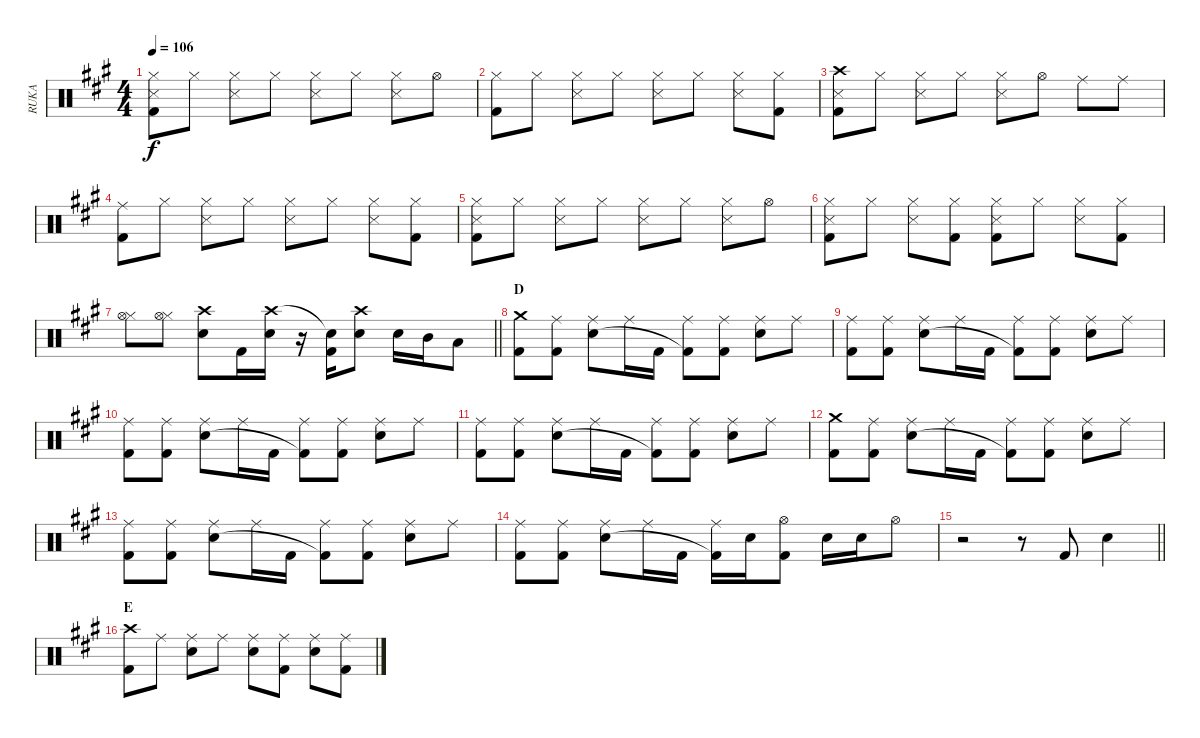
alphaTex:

\track ("RUKA" "RUKA") {instrument percussion}
\staff {score}
\articulation defaults
\ts (4 4)
\tempo 106
\clef neutral
\ks a
("Hi-Hat (closed)" "Snare (side stick) 3" "Kick (hit) 2").8{dy f} "Hi-Hat (closed)".8 ("Hi-Hat (closed)" "Snare (side stick) 3").8 "Hi-Hat (closed)".8 ("Hi-Hat (closed)" "Snare (side stick) 3").8 "Hi-Hat (closed)".8 ("Hi-Hat (closed)" "Snare (side stick) 3").8 "Hi-Hat (open)".8 |
("Hi-Hat (closed)" "Kick (hit) 2").8 "Hi-Hat (closed)".8 ("Hi-Hat (closed)" "Snare (side stick) 3").8 "Hi-Hat (closed)".8 ("Hi-Hat (closed)" "Snare (side stick) 3").8 "Hi-Hat (closed)".8 ("Hi-Hat (closed)" "Snare (side stick) 3").8 ("Hi-Hat (closed)" "Kick (hit) 2").8 |
("Crash high (hit)" "Snare (side stick) 3" "Kick (hit) 2").8 "Hi-Hat (closed)".8 ("Hi-Hat (closed)" "Snare (side stick) 3").8 "Hi-Hat (closed)".8 ("Hi-Hat (closed)" "Snare (side stick) 3").8 "Hi-Hat (open)".8 "Ride (middle)".8 "Ride (middle)".8 |
("Ride (middle)" "Kick (hit) 2").8 "Hi-Hat (closed)".8 ("Hi-Hat (closed)" "Snare (side stick) 3").8 "Hi-Hat (closed)".8 ("Hi-Hat (closed)" "Snare (side stick) 3").8 "Hi-Hat (closed)".8 ("Hi-Hat (closed)" "Snare (side stick) 3").8 ("Hi-Hat (closed)" "Kick (hit) 2").8 |
("Hi-Hat (closed)" "Snare (side stick) 3" "Kick (hit) 2").8 "Hi-Hat (closed)".8 ("Hi-Hat (closed)" "Snare (side stick) 3").8 "Hi-Hat (closed)".8 ("Hi-Hat (closed)" "Snare (side stick) 3").8 "Hi-Hat (closed)".8 ("Hi-Hat (closed)" "Snare (side stick) 3").8 "Hi-Hat (open)".8 |
("Hi-Hat (closed)" "Snare (side stick) 3" "Kick (hit) 2").8 "Hi-Hat (closed)".8 ("Hi-Hat (closed)" "Snare (side stick) 3").8 ("Hi-Hat (closed)" "Kick (hit) 2").8 ("Hi-Hat (closed)" "Snare (side stick) 3" "Kick (hit) 2").8 "Hi-Hat (closed)".8 ("Hi-Hat (closed)" "Snare (side stick) 3").8 ("Hi-Hat (closed)" "Kick (hit) 2").8 |
\barLineRight lightlight
("Hi-Hat (closed)" "Hi-Hat (open)").8 ("Hi-Hat (closed)" "Hi-Hat (open)").8 ("Crash high (hit)" "Snare (hit) 2").8 "Kick (hit) 2".16 ("Crash high (hit)" "Snare (hit) 2").16 r.16 ("Snare (hit)"{t} "Kick (hit) 2").16 ("Crash high (hit)" "Snare (hit) 2").8 "Snare (hit) 2".16 "Mid Tom (hit)".16 "Low Tom (hit)".8 |
\section ("" "D")
("Crash medium (hit)" "Kick (hit) 2").8 ("Ride (middle)" "Kick (hit) 2").8 ("Ride (middle)" "Snare (hit) 2").8 "Ride (middle)".16 "Kick (hit) 2".16 ("Ride (middle)" "Kick (hit) 2"{t}).8 ("Ride (middle)" "Kick (hit) 2").8 ("Ride (middle)" "Snare (hit) 2").8 "Ride (middle)".8 |
("Ride (middle)" "Kick (hit) 2").8 ("Ride (middle)" "Kick (hit) 2").8 ("Ride (middle)" "Snare (hit) 2").8 "Ride (middle)".16 "Kick (hit) 2".16 ("Ride (middle)" "Kick (hit) 2"{t}).8 ("Ride (middle)" "Kick (hit) 2").8 ("Ride (middle)" "Snare (hit) 2").8 "Ride (middle)".8 |
("Ride (middle)" "Kick (hit) 2").8 ("Ride (middle)" "Kick (hit) 2").8 ("Ride (middle)" "Snare (hit) 2").8 "Ride (middle)".16 "Kick (hit) 2".16 ("Ride (middle)" "Kick (hit) 2"{t}).8 ("Ride (middle)" "Kick (hit) 2").8 ("Ride (middle)" "Snare (hit) 2").8 "Ride (middle)".8 |
("Ride (middle)" "Kick (hit) 2").8 ("Ride (middle)" "Kick (hit) 2").8 ("Ride (middle)" "Snare (hit) 2").8 "Ride (middle)".16 "Kick (hit) 2".16 ("Ride (middle)" "Kick (hit) 2"{t}).8 ("Ride (middle)" "Kick (hit) 2").8 ("Ride (middle)" "Snare (hit) 2").8 "Ride (middle)".8 |
("Crash medium (hit)" "Kick (hit) 2").8 ("Ride (middle)" "Kick (hit) 2").8 ("Ride (middle)" "Snare (hit) 2").8 "Ride (middle)".16 "Kick (hit) 2".16 ("Ride (middle)" "Kick (hit) 2"{t}).8 ("Ride (middle)" "Kick (hit) 2").8 ("Ride (middle)" "Snare (hit) 2").8 "Ride (middle)".8 |
("Ride (middle)" "Kick (hit) 2").8 ("Ride (middle)" "Kick (hit) 2").8 ("Ride (middle)" "Snare (hit) 2").8 "Ride (middle)".16 "Kick (hit) 2".16 ("Ride (middle)" "Kick (hit) 2"{t}).8 ("Ride (middle)" "Kick (hit) 2").8 ("Ride (middle)" "Snare (hit) 2").8 "Ride (middle)".8 |
("Ride (middle)" "Kick (hit) 2").8 ("Ride (middle)" "Kick (hit) 2").8 ("Ride (middle)" "Snare (hit) 2").8 "Ride (middle)".16 "Kick (hit) 2".16 ("Ride (middle)" "Kick (hit) 2"{t}).16 "Snare (hit) 2".16 ("Hi-Hat (open)" "Kick (hit) 2").8 "Snare (hit) 2".16 "Snare (hit) 2".16 "Hi-Hat (open)".8 |
\barLineRight lightlight
r.2 r.8 "Kick (hit) 2".8 "Snare (hit) 2".4 |
\section ("" "E")
("Crash high (hit)" "Kick (hit) 2").8 "Ride (middle)".8 ("Ride (middle)" "Snare (hit) 2").8 "Ride (middle)".8 ("Ride (middle)" "Snare (hit) 2").8 ("Ride (middle)" "Kick (hit) 2").8 ("Ride (middle)" "Snare (hit) 2").8 ("Ride (middle)" "Kick (hit) 2").8
